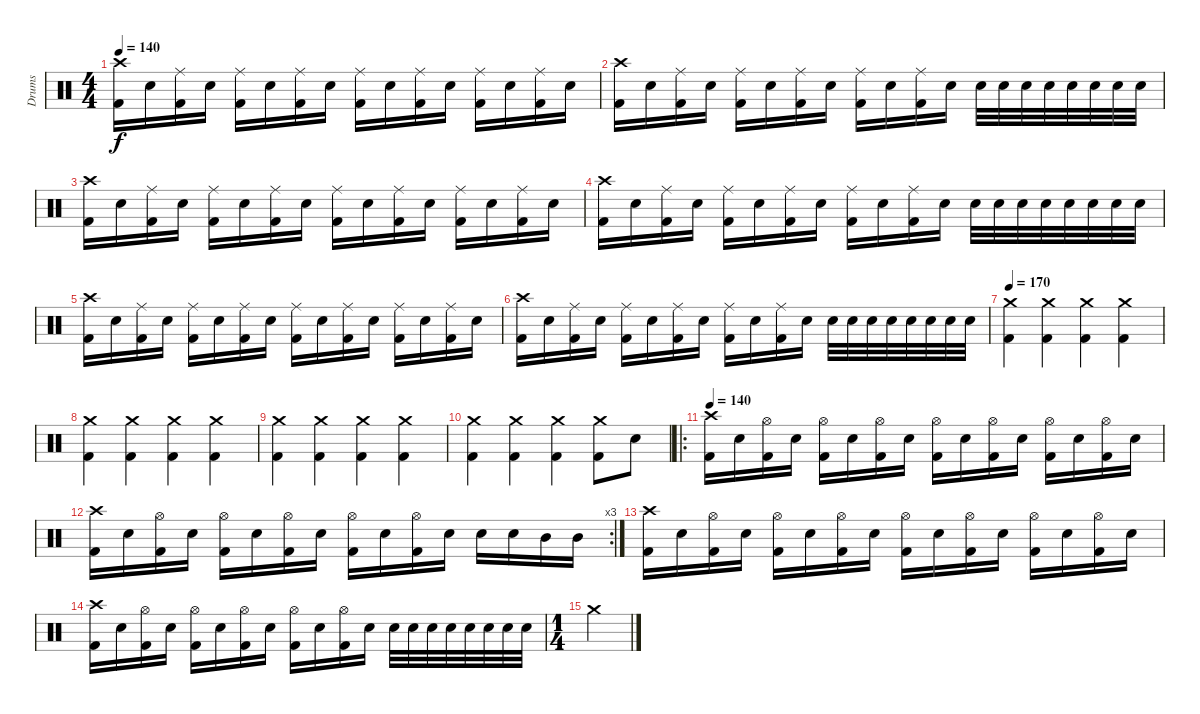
\track ("Drums" "Drums") {instrument percussion}
\staff {score}
\articulation defaults
\ts (4 4)
\tempo 140
\clef neutral
\ks c
("Crash high (hit)" "Kick (hit) 2").16{dy f} "Snare (hit) 2".16 ("Ride (middle)" "Kick (hit) 2").16 "Snare (hit) 2".16 ("Ride (middle)" "Kick (hit) 2").16 "Snare (hit) 2".16 ("Ride (middle)" "Kick (hit) 2").16 "Snare (hit) 2".16 ("Ride (middle)" "Kick (hit) 2").16 "Snare (hit) 2".16 ("Ride (middle)" "Kick (hit) 2").16 "Snare (hit) 2".16 ("Ride (middle)" "Kick (hit) 2").16 "Snare (hit) 2".16 ("Ride (middle)" "Kick (hit) 2").16 "Snare (hit) 2".16 |
("Crash high (hit)" "Kick (hit) 2").16 "Snare (hit) 2".16 ("Ride (middle)" "Kick (hit) 2").16 "Snare (hit) 2".16 ("Ride (middle)" "Kick (hit) 2").16 "Snare (hit) 2".16 ("Ride (middle)" "Kick (hit) 2").16 "Snare (hit) 2".16 ("Ride (middle)" "Kick (hit) 2").16 "Snare (hit) 2".16 ("Ride (middle)" "Kick (hit) 2").16 "Snare (hit) 2".16 "Snare (hit) 2".32 "Snare (hit) 2".32 "Snare (hit) 2".32 "Snare (hit) 2".32 "Snare (hit) 2".32 "Snare (hit) 2".32 "Snare (hit) 2".32 "Snare (hit) 2".32 |
("Crash high (hit)" "Kick (hit) 2").16 "Snare (hit) 2".16 ("Ride (middle)" "Kick (hit) 2").16 "Snare (hit) 2".16 ("Ride (middle)" "Kick (hit) 2").16 "Snare (hit) 2".16 ("Ride (middle)" "Kick (hit) 2").16 "Snare (hit) 2".16 ("Ride (middle)" "Kick (hit) 2").16 "Snare (hit) 2".16 ("Ride (middle)" "Kick (hit) 2").16 "Snare (hit) 2".16 ("Ride (middle)" "Kick (hit) 2").16 "Snare (hit) 2".16 ("Ride (middle)" "Kick (hit) 2").16 "Snare (hit) 2".16 |
("Crash high (hit)" "Kick (hit) 2").16 "Snare (hit) 2".16 ("Ride (middle)" "Kick (hit) 2").16 "Snare (hit) 2".16 ("Ride (middle)" "Kick (hit) 2").16 "Snare (hit) 2".16 ("Ride (middle)" "Kick (hit) 2").16 "Snare (hit) 2".16 ("Ride (middle)" "Kick (hit) 2").16 "Snare (hit) 2".16 ("Ride (middle)" "Kick (hit) 2").16 "Snare (hit) 2".16 "Snare (hit) 2".32 "Snare (hit) 2".32 "Snare (hit) 2".32 "Snare (hit) 2".32 "Snare (hit) 2".32 "Snare (hit) 2".32 "Snare (hit) 2".32 "Snare (hit) 2".32 |
("Crash high (hit)" "Kick (hit) 2").16 "Snare (hit) 2".16 ("Ride (middle)" "Kick (hit) 2").16 "Snare (hit) 2".16 ("Ride (middle)" "Kick (hit) 2").16 "Snare (hit) 2".16 ("Ride (middle)" "Kick (hit) 2").16 "Snare (hit) 2".16 ("Ride (middle)" "Kick (hit) 2").16 "Snare (hit) 2".16 ("Ride (middle)" "Kick (hit) 2").16 "Snare (hit) 2".16 ("Ride (middle)" "Kick (hit) 2").16 "Snare (hit) 2".16 ("Ride (middle)" "Kick (hit) 2").16 "Snare (hit) 2".16 |
("Crash high (hit)" "Kick (hit) 2").16 "Snare (hit) 2".16 ("Ride (middle)" "Kick (hit) 2").16 "Snare (hit) 2".16 ("Ride (middle)" "Kick (hit) 2").16 "Snare (hit) 2".16 ("Ride (middle)" "Kick (hit) 2").16 "Snare (hit) 2".16 ("Ride (middle)" "Kick (hit) 2").16 "Snare (hit) 2".16 ("Ride (middle)" "Kick (hit) 2").16 "Snare (hit) 2".16 "Snare (hit) 2".32 "Snare (hit) 2".32 "Snare (hit) 2".32 "Snare (hit) 2".32 "Snare (hit) 2".32 "Snare (hit) 2".32 "Snare (hit) 2".32 "Snare (hit) 2".32 |
\tempo 170
("Crash medium (hit)" "Kick (hit) 2").4 ("Crash medium (hit)" "Kick (hit) 2").4 ("Crash medium (hit)" "Kick (hit) 2").4 ("Crash medium (hit)" "Kick (hit) 2").4 |
("Crash medium (hit)" "Kick (hit) 2").4 ("Crash medium (hit)" "Kick (hit) 2").4 ("Crash medium (hit)" "Kick (hit) 2").4 ("Crash medium (hit)" "Kick (hit) 2").4 |
("Crash medium (hit)" "Kick (hit) 2").4 ("Crash medium (hit)" "Kick (hit) 2").4 ("Crash medium (hit)" "Kick (hit) 2").4 ("Crash medium (hit)" "Kick (hit) 2").4 |
("Crash medium (hit)" "Kick (hit) 2").4 ("Crash medium (hit)" "Kick (hit) 2").4 ("Crash medium (hit)" "Kick (hit) 2").4 ("Crash medium (hit)" "Kick (hit) 2").8 "Snare (hit) 2".8 |
\ro
\tempo 140
("Crash high (hit)" "Kick (hit) 2").16 "Snare (hit) 2".16 ("Hi-Hat (open)" "Kick (hit) 2").16 "Snare (hit) 2".16 ("Hi-Hat (open)" "Kick (hit) 2").16 "Snare (hit) 2".16 ("Hi-Hat (open)" "Kick (hit) 2").16 "Snare (hit) 2".16 ("Hi-Hat (open)" "Kick (hit) 2").16 "Snare (hit) 2".16 ("Hi-Hat (open)" "Kick (hit) 2").16 "Snare (hit) 2".16 ("Hi-Hat (open)" "Kick (hit) 2").16 "Snare (hit) 2".16 ("Hi-Hat (open)" "Kick (hit) 2").16 "Snare (hit) 2".16 |
\rc 3
("Crash high (hit)" "Kick (hit) 2").16 "Snare (hit) 2".16 ("Hi-Hat (open)" "Kick (hit) 2").16 "Snare (hit) 2".16 ("Hi-Hat (open)" "Kick (hit) 2").16 "Snare (hit) 2".16 ("Hi-Hat (open)" "Kick (hit) 2").16 "Snare (hit) 2".16 ("Hi-Hat (open)" "Kick (hit) 2").16 "Snare (hit) 2".16 ("Hi-Hat (open)" "Kick (hit) 2").16 "Snare (hit) 2".16 "Snare (hit) 2".16 "Snare (hit) 2".16 "Mid Tom (hit)".16 "Mid Tom (hit)".16 |
("Crash high (hit)" "Kick (hit) 2").16 "Snare (hit) 2".16 ("Hi-Hat (open)" "Kick (hit) 2").16 "Snare (hit) 2".16 ("Hi-Hat (open)" "Kick (hit) 2").16 "Snare (hit) 2".16 ("Hi-Hat (open)" "Kick (hit) 2").16 "Snare (hit) 2".16 ("Hi-Hat (open)" "Kick (hit) 2").16 "Snare (hit) 2".16 ("Hi-Hat (open)" "Kick (hit) 2").16 "Snare (hit) 2".16 ("Hi-Hat (open)" "Kick (hit) 2").16 "Snare (hit) 2".16 ("Hi-Hat (open)" "Kick (hit) 2").16 "Snare (hit) 2".16 |
("Crash high (hit)" "Kick (hit) 2").16 "Snare (hit) 2".16 ("Hi-Hat (open)" "Kick (hit) 2").16 "Snare (hit) 2".16 ("Hi-Hat (open)" "Kick (hit) 2").16 "Snare (hit) 2".16 ("Hi-Hat (open)" "Kick (hit) 2").16 "Snare (hit) 2".16 ("Hi-Hat (open)" "Kick (hit) 2").16 "Snare (hit) 2".16 ("Hi-Hat (open)" "Kick (hit) 2").16 "Snare (hit) 2".16 "Snare (hit) 2".32 "Snare (hit) 2".32 "Snare (hit) 2".32 "Snare (hit) 2".32 "Snare (hit) 2".32 "Snare (hit) 2".32 "Snare (hit) 2".32 "Snare (hit) 2".32 |
\ts (1 4)
"Crash medium (hit)".4
